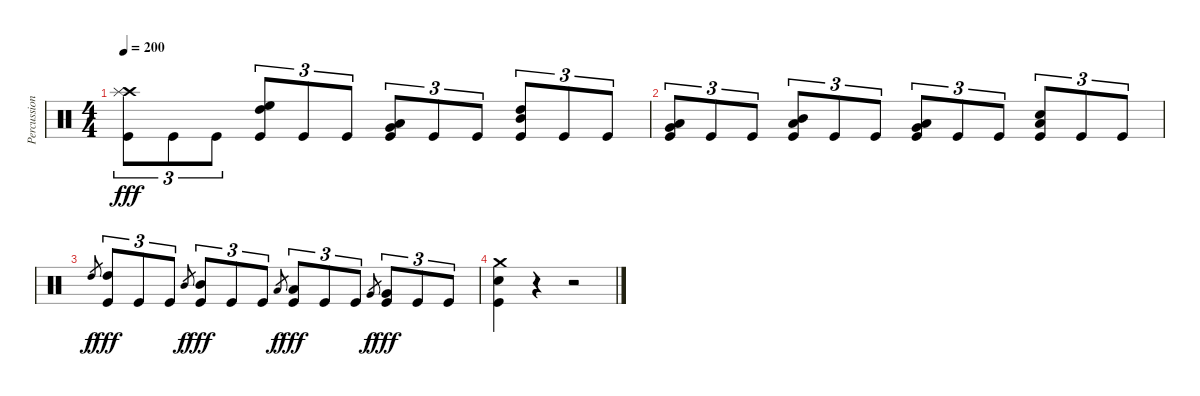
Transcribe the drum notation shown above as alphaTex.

\track ("Percussion" "Percussion") {instrument percussion}
\staff {score}
\articulation defaults
\ts (4 4)
\tempo 200
\clef neutral
\ks c
("Crash high (hit)" "Splash (hit)" "Kick (hit)").8{tu (3 2) dy fff} "Kick (hit)".8{tu (3 2)} "Kick (hit)".8{tu (3 2)} ("High Tom (hit)" "High Floor Tom (hit)" "Kick (hit)").8{tu (3 2)} "Kick (hit)".8{tu (3 2)} "Kick (hit)".8{tu (3 2)} ("Low Tom (hit)" "Very Low Tom (hit)" "Kick (hit)").8{tu (3 2)} "Kick (hit)".8{tu (3 2)} "Kick (hit)".8{tu (3 2)} ("Mid Tom (hit)" "High Tom (hit)" "Kick (hit)").8{tu (3 2)} "Kick (hit)".8{tu (3 2)} "Kick (hit)".8{tu (3 2)} |
("Low Tom (hit)" "Very Low Tom (hit)" "Kick (hit)").8{tu (3 2)} "Kick (hit)".8{tu (3 2)} "Kick (hit)".8{tu (3 2)} ("Mid Tom (hit)" "Low Tom (hit)" "Kick (hit)").8{tu (3 2)} "Kick (hit)".8{tu (3 2)} "Kick (hit)".8{tu (3 2)} ("Very Low Tom (hit)" "Low Tom (hit)" "Kick (hit)").8{tu (3 2)} "Kick (hit)".8{tu (3 2)} "Kick (hit)".8{tu (3 2)} ("Low Tom (hit)" "Snare (hit) 2" "Kick (hit)").8{tu (3 2)} "Kick (hit)".8{tu (3 2)} "Kick (hit)".8{tu (3 2)} |
"High Tom (hit)".8{gr dy f} ("High Tom (hit)" "Kick (hit)").8{tu (3 2) dy fff} "Kick (hit)".8{tu (3 2)} "Kick (hit)".8{tu (3 2)} "Mid Tom (hit)".8{gr dy f} ("Mid Tom (hit)" "Kick (hit)").8{tu (3 2) dy fff} "Kick (hit)".8{tu (3 2)} "Kick (hit)".8{tu (3 2)} "Low Tom (hit)".8{gr dy f} ("Low Tom (hit)" "Kick (hit)").8{tu (3 2) dy fff} "Kick (hit)".8{tu (3 2)} "Kick (hit)".8{tu (3 2)} "Very Low Tom (hit)".8{gr dy f} ("Very Low Tom (hit)" "Kick (hit)").8{tu (3 2) dy fff} "Kick (hit)".8{tu (3 2)} "Kick (hit)".8{tu (3 2)} |
("Crash medium (hit)" "Snare (hit) 2" "Kick (hit)").4 r.4{volume 0} r.2
